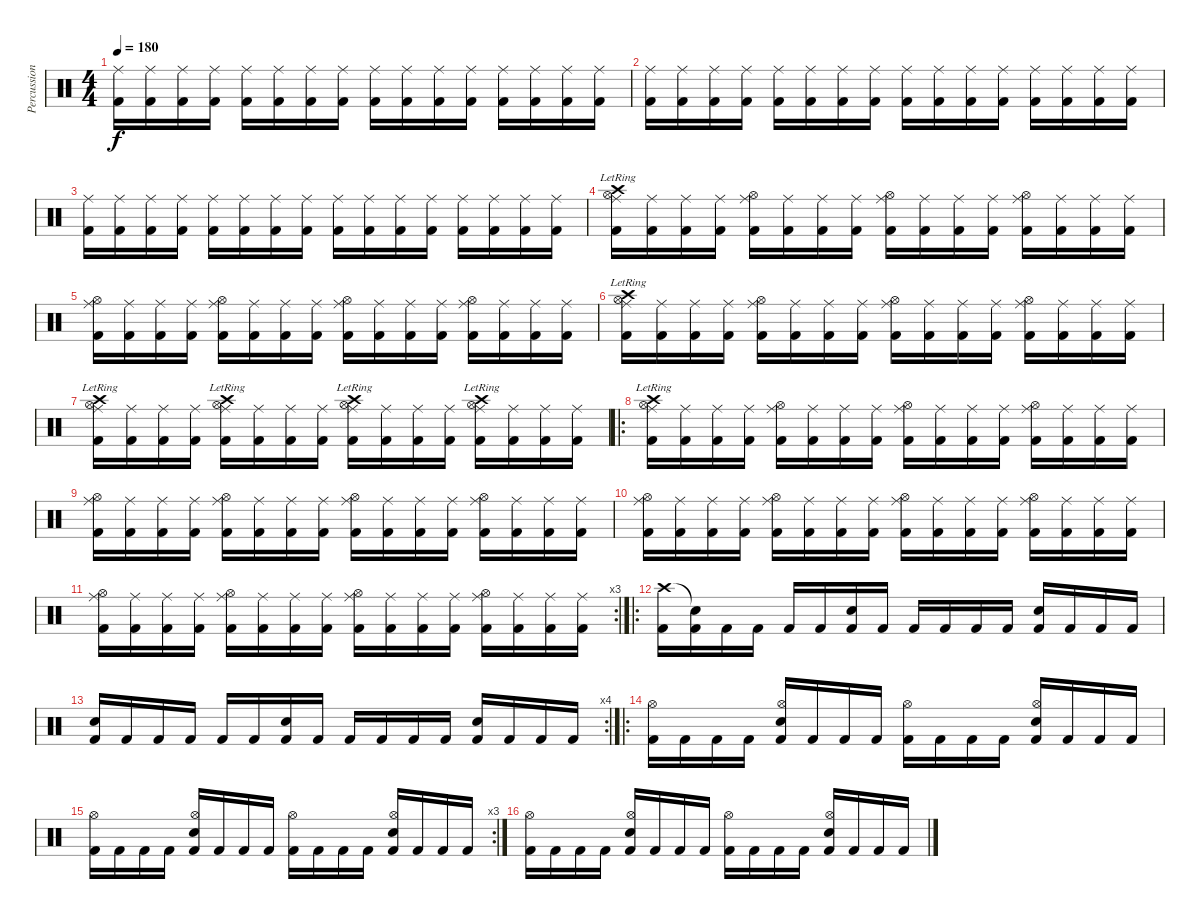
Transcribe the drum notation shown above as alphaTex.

\track ("Percussions" "Percussion") {instrument percussion}
\staff {score}
\articulation defaults
\ts (4 4)
\tempo 180
\clef neutral
\ks c
("Kick (hit) 2" "Ride (middle)").16{dy f} ("Kick (hit) 2" "Ride (middle)").16 ("Kick (hit) 2" "Ride (middle)").16 ("Kick (hit) 2" "Ride (middle)").16 ("Kick (hit) 2" "Ride (middle)").16 ("Kick (hit) 2" "Ride (middle)").16 ("Kick (hit) 2" "Ride (middle)").16 ("Kick (hit) 2" "Ride (middle)").16 ("Kick (hit) 2" "Ride (middle)").16 ("Kick (hit) 2" "Ride (middle)").16 ("Kick (hit) 2" "Ride (middle)").16 ("Kick (hit) 2" "Ride (middle)").16 ("Kick (hit) 2" "Ride (middle)").16 ("Kick (hit) 2" "Ride (middle)").16 ("Kick (hit) 2" "Ride (middle)").16 ("Kick (hit) 2" "Ride (middle)").16 |
("Kick (hit) 2" "Ride (middle)").16 ("Kick (hit) 2" "Ride (middle)").16 ("Kick (hit) 2" "Ride (middle)").16 ("Kick (hit) 2" "Ride (middle)").16 ("Kick (hit) 2" "Ride (middle)").16 ("Kick (hit) 2" "Ride (middle)").16 ("Kick (hit) 2" "Ride (middle)").16 ("Kick (hit) 2" "Ride (middle)").16 ("Kick (hit) 2" "Ride (middle)").16 ("Kick (hit) 2" "Ride (middle)").16 ("Kick (hit) 2" "Ride (middle)").16 ("Kick (hit) 2" "Ride (middle)").16 ("Kick (hit) 2" "Ride (middle)").16 ("Kick (hit) 2" "Ride (middle)").16 ("Kick (hit) 2" "Ride (middle)").16 ("Kick (hit) 2" "Ride (middle)").16 |
("Kick (hit) 2" "Ride (middle)").16 ("Kick (hit) 2" "Ride (middle)").16 ("Kick (hit) 2" "Ride (middle)").16 ("Kick (hit) 2" "Ride (middle)").16 ("Kick (hit) 2" "Ride (middle)").16 ("Kick (hit) 2" "Ride (middle)").16 ("Kick (hit) 2" "Ride (middle)").16 ("Kick (hit) 2" "Ride (middle)").16 ("Kick (hit) 2" "Ride (middle)").16 ("Kick (hit) 2" "Ride (middle)").16 ("Kick (hit) 2" "Ride (middle)").16 ("Kick (hit) 2" "Ride (middle)").16 ("Kick (hit) 2" "Ride (middle)").16 ("Kick (hit) 2" "Ride (middle)").16 ("Kick (hit) 2" "Ride (middle)").16 ("Kick (hit) 2" "Ride (middle)").16 |
("Kick (hit) 2" "Ride (middle)" "Crash high (hit)"{lr} "Hi-Hat (open)").16 ("Kick (hit) 2" "Ride (middle)").16 ("Kick (hit) 2" "Ride (middle)").16 ("Kick (hit) 2" "Ride (middle)").16 ("Kick (hit) 2" "Ride (middle)" "Hi-Hat (open)").16 ("Kick (hit) 2" "Ride (middle)").16 ("Kick (hit) 2" "Ride (middle)").16 ("Kick (hit) 2" "Ride (middle)").16 ("Kick (hit) 2" "Ride (middle)" "Hi-Hat (open)").16 ("Kick (hit) 2" "Ride (middle)").16 ("Kick (hit) 2" "Ride (middle)").16 ("Kick (hit) 2" "Ride (middle)").16 ("Kick (hit) 2" "Ride (middle)" "Hi-Hat (open)").16 ("Kick (hit) 2" "Ride (middle)").16 ("Kick (hit) 2" "Ride (middle)").16 ("Kick (hit) 2" "Ride (middle)").16 |
("Kick (hit) 2" "Ride (middle)" "Hi-Hat (open)").16 ("Kick (hit) 2" "Ride (middle)").16 ("Kick (hit) 2" "Ride (middle)").16 ("Kick (hit) 2" "Ride (middle)").16 ("Kick (hit) 2" "Ride (middle)" "Hi-Hat (open)").16 ("Kick (hit) 2" "Ride (middle)").16 ("Kick (hit) 2" "Ride (middle)").16 ("Kick (hit) 2" "Ride (middle)").16 ("Kick (hit) 2" "Ride (middle)" "Hi-Hat (open)").16 ("Kick (hit) 2" "Ride (middle)").16 ("Kick (hit) 2" "Ride (middle)").16 ("Kick (hit) 2" "Ride (middle)").16 ("Kick (hit) 2" "Ride (middle)" "Hi-Hat (open)").16 ("Kick (hit) 2" "Ride (middle)").16 ("Kick (hit) 2" "Ride (middle)").16 ("Kick (hit) 2" "Ride (middle)").16 |
("Kick (hit) 2" "Ride (middle)" "Crash high (hit)"{lr} "Hi-Hat (open)").16 ("Kick (hit) 2" "Ride (middle)").16 ("Kick (hit) 2" "Ride (middle)").16 ("Kick (hit) 2" "Ride (middle)").16 ("Kick (hit) 2" "Ride (middle)" "Hi-Hat (open)").16 ("Kick (hit) 2" "Ride (middle)").16 ("Kick (hit) 2" "Ride (middle)").16 ("Kick (hit) 2" "Ride (middle)").16 ("Kick (hit) 2" "Ride (middle)" "Hi-Hat (open)").16 ("Kick (hit) 2" "Ride (middle)").16 ("Kick (hit) 2" "Ride (middle)").16 ("Kick (hit) 2" "Ride (middle)").16 ("Kick (hit) 2" "Ride (middle)" "Hi-Hat (open)").16 ("Kick (hit) 2" "Ride (middle)").16 ("Kick (hit) 2" "Ride (middle)").16 ("Kick (hit) 2" "Ride (middle)").16 |
("Kick (hit) 2" "Ride (middle)" "Crash high (hit)"{lr} "Hi-Hat (open)").16 ("Kick (hit) 2" "Ride (middle)").16 ("Kick (hit) 2" "Ride (middle)").16 ("Kick (hit) 2" "Ride (middle)").16 ("Kick (hit) 2" "Ride (middle)" "Crash high (hit)"{lr} "Hi-Hat (open)").16 ("Kick (hit) 2" "Ride (middle)").16 ("Kick (hit) 2" "Ride (middle)").16 ("Kick (hit) 2" "Ride (middle)").16 ("Kick (hit) 2" "Ride (middle)" "Crash high (hit)"{lr} "Hi-Hat (open)").16 ("Kick (hit) 2" "Ride (middle)").16 ("Kick (hit) 2" "Ride (middle)").16 ("Kick (hit) 2" "Ride (middle)").16 ("Kick (hit) 2" "Ride (middle)" "Crash high (hit)"{lr} "Hi-Hat (open)").16 ("Kick (hit) 2" "Ride (middle)").16 ("Kick (hit) 2" "Ride (middle)").16 ("Kick (hit) 2" "Ride (middle)").16 |
\ro
("Kick (hit) 2" "Ride (middle)" "Crash high (hit)"{lr} "Hi-Hat (open)").16 ("Kick (hit) 2" "Ride (middle)").16 ("Kick (hit) 2" "Ride (middle)").16 ("Kick (hit) 2" "Ride (middle)").16 ("Kick (hit) 2" "Ride (middle)" "Hi-Hat (open)").16 ("Kick (hit) 2" "Ride (middle)").16 ("Kick (hit) 2" "Ride (middle)").16 ("Kick (hit) 2" "Ride (middle)").16 ("Kick (hit) 2" "Ride (middle)" "Hi-Hat (open)").16 ("Kick (hit) 2" "Ride (middle)").16 ("Kick (hit) 2" "Ride (middle)").16 ("Kick (hit) 2" "Ride (middle)").16 ("Kick (hit) 2" "Ride (middle)" "Hi-Hat (open)").16 ("Kick (hit) 2" "Ride (middle)").16 ("Kick (hit) 2" "Ride (middle)").16 ("Kick (hit) 2" "Ride (middle)").16 |
("Kick (hit) 2" "Ride (middle)" "Hi-Hat (open)").16 ("Kick (hit) 2" "Ride (middle)").16 ("Kick (hit) 2" "Ride (middle)").16 ("Kick (hit) 2" "Ride (middle)").16 ("Kick (hit) 2" "Ride (middle)" "Hi-Hat (open)").16 ("Kick (hit) 2" "Ride (middle)").16 ("Kick (hit) 2" "Ride (middle)").16 ("Kick (hit) 2" "Ride (middle)").16 ("Kick (hit) 2" "Ride (middle)" "Hi-Hat (open)").16 ("Kick (hit) 2" "Ride (middle)").16 ("Kick (hit) 2" "Ride (middle)").16 ("Kick (hit) 2" "Ride (middle)").16 ("Kick (hit) 2" "Ride (middle)" "Hi-Hat (open)").16 ("Kick (hit) 2" "Ride (middle)").16 ("Kick (hit) 2" "Ride (middle)").16 ("Kick (hit) 2" "Ride (middle)").16 |
("Kick (hit) 2" "Ride (middle)" "Hi-Hat (open)").16 ("Kick (hit) 2" "Ride (middle)").16 ("Kick (hit) 2" "Ride (middle)").16 ("Kick (hit) 2" "Ride (middle)").16 ("Kick (hit) 2" "Ride (middle)" "Hi-Hat (open)").16 ("Kick (hit) 2" "Ride (middle)").16 ("Kick (hit) 2" "Ride (middle)").16 ("Kick (hit) 2" "Ride (middle)").16 ("Kick (hit) 2" "Ride (middle)" "Hi-Hat (open)").16 ("Kick (hit) 2" "Ride (middle)").16 ("Kick (hit) 2" "Ride (middle)").16 ("Kick (hit) 2" "Ride (middle)").16 ("Kick (hit) 2" "Ride (middle)" "Hi-Hat (open)").16 ("Kick (hit) 2" "Ride (middle)").16 ("Kick (hit) 2" "Ride (middle)").16 ("Kick (hit) 2" "Ride (middle)").16 |
\rc 3
("Kick (hit) 2" "Ride (middle)" "Hi-Hat (open)").16 ("Kick (hit) 2" "Ride (middle)").16 ("Kick (hit) 2" "Ride (middle)").16 ("Kick (hit) 2" "Ride (middle)").16 ("Kick (hit) 2" "Ride (middle)" "Hi-Hat (open)").16 ("Kick (hit) 2" "Ride (middle)").16 ("Kick (hit) 2" "Ride (middle)").16 ("Kick (hit) 2" "Ride (middle)").16 ("Kick (hit) 2" "Ride (middle)" "Hi-Hat (open)").16 ("Kick (hit) 2" "Ride (middle)").16 ("Kick (hit) 2" "Ride (middle)").16 ("Kick (hit) 2" "Ride (middle)").16 ("Kick (hit) 2" "Ride (middle)" "Hi-Hat (open)").16 ("Kick (hit) 2" "Ride (middle)").16 ("Kick (hit) 2" "Ride (middle)").16 ("Kick (hit) 2" "Ride (middle)").16 |
\ro
("Kick (hit) 2" "Crash high (hit)").16 ("Kick (hit) 2" "Snare (hit)"{t}).16 "Kick (hit) 2".16 "Kick (hit) 2".16 "Kick (hit) 2".16 "Kick (hit) 2".16 ("Kick (hit) 2" "Electric Snare (hit)").16 "Kick (hit) 2".16 "Kick (hit) 2".16 "Kick (hit) 2".16 "Kick (hit) 2".16 "Kick (hit) 2".16 ("Kick (hit) 2" "Electric Snare (hit)").16 "Kick (hit) 2".16 "Kick (hit) 2".16 "Kick (hit) 2".16 |
\rc 4
("Kick (hit) 2" "Electric Snare (hit)").16 "Kick (hit) 2".16 "Kick (hit) 2".16 "Kick (hit) 2".16 "Kick (hit) 2".16 "Kick (hit) 2".16 ("Kick (hit) 2" "Electric Snare (hit)").16 "Kick (hit) 2".16 "Kick (hit) 2".16 "Kick (hit) 2".16 "Kick (hit) 2".16 "Kick (hit) 2".16 ("Kick (hit) 2" "Electric Snare (hit)").16 "Kick (hit) 2".16 "Kick (hit) 2".16 "Kick (hit) 2".16 |
\ro
("Kick (hit) 2" "Hi-Hat (open)").16 "Kick (hit) 2".16 "Kick (hit) 2".16 "Kick (hit) 2".16 ("Kick (hit) 2" "Snare (hit) 2" "Hi-Hat (open)").16 "Kick (hit) 2".16 "Kick (hit) 2".16 "Kick (hit) 2".16 ("Kick (hit) 2" "Hi-Hat (open)").16 "Kick (hit) 2".16 "Kick (hit) 2".16 "Kick (hit) 2".16 ("Kick (hit) 2" "Snare (hit) 2" "Hi-Hat (open)").16 "Kick (hit) 2".16 "Kick (hit) 2".16 "Kick (hit) 2".16 |
\rc 3
("Kick (hit) 2" "Hi-Hat (open)").16 "Kick (hit) 2".16 "Kick (hit) 2".16 "Kick (hit) 2".16 ("Kick (hit) 2" "Snare (hit) 2" "Hi-Hat (open)").16 "Kick (hit) 2".16 "Kick (hit) 2".16 "Kick (hit) 2".16 ("Kick (hit) 2" "Hi-Hat (open)").16 "Kick (hit) 2".16 "Kick (hit) 2".16 "Kick (hit) 2".16 ("Kick (hit) 2" "Snare (hit) 2" "Hi-Hat (open)").16 "Kick (hit) 2".16 "Kick (hit) 2".16 "Kick (hit) 2".16 |
("Kick (hit) 2" "Hi-Hat (open)").16 "Kick (hit) 2".16 "Kick (hit) 2".16 "Kick (hit) 2".16 ("Kick (hit) 2" "Snare (hit) 2" "Hi-Hat (open)").16 "Kick (hit) 2".16 "Kick (hit) 2".16 "Kick (hit) 2".16 ("Kick (hit) 2" "Hi-Hat (open)").16 "Kick (hit) 2".16 "Kick (hit) 2".16 "Kick (hit) 2".16 ("Kick (hit) 2" "Snare (hit) 2" "Hi-Hat (open)").16 "Kick (hit) 2".16 "Kick (hit) 2".16 "Kick (hit) 2".16
